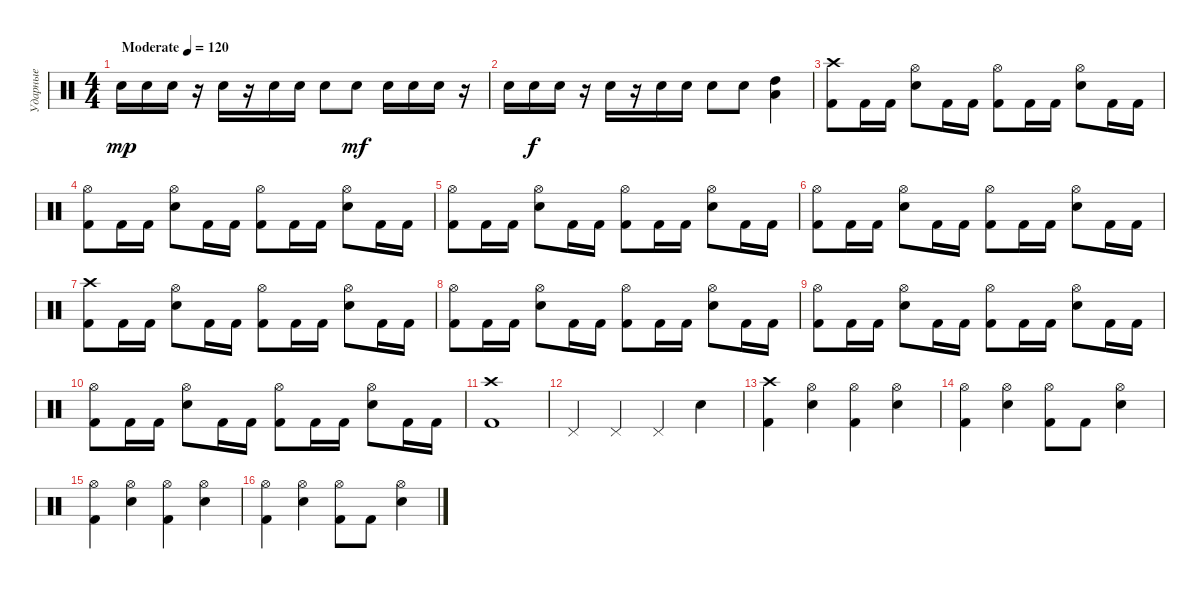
\track ("Ударные" "Ударные") {instrument percussion}
\staff {score}
\articulation defaults
\ts (4 4)
\tempo (120 "Moderate")
\clef neutral
\ks c "Snare (hit) 2".16{dy mp} "Snare (hit) 2".16 "Snare (hit) 2".16
r.16 "Snare (hit) 2".16 r.16 "Snare (hit) 2".16 "Snare (hit) 2".16 "Snare (hit) 2".8 "Snare (hit) 2".8{dy mf} "Snare (hit) 2".16 "Snare (hit) 2".16 "Snare (hit) 2".16 r.16 |
"Snare (hit) 2".16 "Snare (hit) 2".16{dy f} "Snare (hit) 2".16 r.16 "Snare (hit) 2".16 r.16 "Snare (hit) 2".16 "Snare (hit) 2".16 "Snare (hit) 2".8 "Snare (hit) 2".8 ("High Tom (hit)" "Low Tom (hit)").4 |
("Kick (hit) 2" "Crash high (hit)").8 "Kick (hit) 2".16 "Kick (hit) 2".16 ("Snare (hit) 2" "Hi-Hat (open)").8 "Kick (hit) 2".16 "Kick (hit) 2".16 ("Kick (hit) 2" "Hi-Hat (open)").8 "Kick (hit) 2".16 "Kick (hit) 2".16 ("Snare (hit) 2" "Hi-Hat (open)").8 "Kick (hit) 2".16 "Kick (hit) 2".16 |
("Kick (hit) 2" "Hi-Hat (open)").8 "Kick (hit) 2".16 "Kick (hit) 2".16 ("Snare (hit) 2" "Hi-Hat (open)").8 "Kick (hit) 2".16 "Kick (hit) 2".16 ("Kick (hit) 2" "Hi-Hat (open)").8 "Kick (hit) 2".16 "Kick (hit) 2".16 ("Snare (hit) 2" "Hi-Hat (open)").8 "Kick (hit) 2".16 "Kick (hit) 2".16 |
("Kick (hit) 2" "Hi-Hat (open)").8 "Kick (hit) 2".16 "Kick (hit) 2".16 ("Snare (hit) 2" "Hi-Hat (open)").8 "Kick (hit) 2".16 "Kick (hit) 2".16 ("Kick (hit) 2" "Hi-Hat (open)").8 "Kick (hit) 2".16 "Kick (hit) 2".16 ("Snare (hit) 2" "Hi-Hat (open)").8 "Kick (hit) 2".16 "Kick (hit) 2".16 |
("Kick (hit) 2" "Hi-Hat (open)").8 "Kick (hit) 2".16 "Kick (hit) 2".16 ("Snare (hit) 2" "Hi-Hat (open)").8 "Kick (hit) 2".16 "Kick (hit) 2".16 ("Kick (hit) 2" "Hi-Hat (open)").8 "Kick (hit) 2".16 "Kick (hit) 2".16 ("Snare (hit) 2" "Hi-Hat (open)").8 "Kick (hit) 2".16 "Kick (hit) 2".16 |
("Kick (hit) 2" "Crash high (hit)").8 "Kick (hit) 2".16 "Kick (hit) 2".16 ("Snare (hit) 2" "Hi-Hat (open)").8 "Kick (hit) 2".16 "Kick (hit) 2".16 ("Kick (hit) 2" "Hi-Hat (open)").8 "Kick (hit) 2".16 "Kick (hit) 2".16 ("Snare (hit) 2" "Hi-Hat (open)").8 "Kick (hit) 2".16 "Kick (hit) 2".16 |
("Kick (hit) 2" "Hi-Hat (open)").8 "Kick (hit) 2".16 "Kick (hit) 2".16 ("Snare (hit) 2" "Hi-Hat (open)").8 "Kick (hit) 2".16 "Kick (hit) 2".16 ("Kick (hit) 2" "Hi-Hat (open)").8 "Kick (hit) 2".16 "Kick (hit) 2".16 ("Snare (hit) 2" "Hi-Hat (open)").8 "Kick (hit) 2".16 "Kick (hit) 2".16 |
("Kick (hit) 2" "Hi-Hat (open)").8 "Kick (hit) 2".16 "Kick (hit) 2".16 ("Snare (hit) 2" "Hi-Hat (open)").8 "Kick (hit) 2".16 "Kick (hit) 2".16 ("Kick (hit) 2" "Hi-Hat (open)").8 "Kick (hit) 2".16 "Kick (hit) 2".16 ("Snare (hit) 2" "Hi-Hat (open)").8 "Kick (hit) 2".16 "Kick (hit) 2".16 |
("Kick (hit) 2" "Hi-Hat (open)").8 "Kick (hit) 2".16 "Kick (hit) 2".16 ("Snare (hit) 2" "Hi-Hat (open)").8 "Kick (hit) 2".16 "Kick (hit) 2".16 ("Kick (hit) 2" "Hi-Hat (open)").8 "Kick (hit) 2".16 "Kick (hit) 2".16 ("Snare (hit) 2" "Hi-Hat (open)").8 "Kick (hit) 2".16 "Kick (hit) 2".16 |
("Crash high (hit)" "Kick (hit) 2").1 |
"Pedal Hi-Hat (hit)".4 "Pedal Hi-Hat (hit)".4 "Pedal Hi-Hat (hit)".4 "Electric Snare (hit)".4 |
("Crash high (hit)" "Kick (hit) 2").4 ("Hi-Hat (open)" "Snare (hit) 2").4 ("Hi-Hat (open)" "Kick (hit) 2").4 ("Hi-Hat (open)" "Snare (hit) 2").4 |
("Hi-Hat (open)" "Kick (hit) 2").4 ("Hi-Hat (open)" "Snare (hit) 2").4 ("Hi-Hat (open)" "Kick (hit) 2").8 "Kick (hit) 2".8 ("Hi-Hat (open)" "Snare (hit) 2").4 |
("Hi-Hat (open)" "Kick (hit) 2").4 ("Hi-Hat (open)" "Snare (hit) 2").4 ("Hi-Hat (open)" "Kick (hit) 2").4 ("Hi-Hat (open)" "Snare (hit) 2").4 |
("Hi-Hat (open)" "Kick (hit) 2").4 ("Hi-Hat (open)" "Snare (hit) 2").4 ("Hi-Hat (open)" "Kick (hit) 2").8 "Kick (hit) 2".8 ("Hi-Hat (open)" "Snare (hit) 2").4
